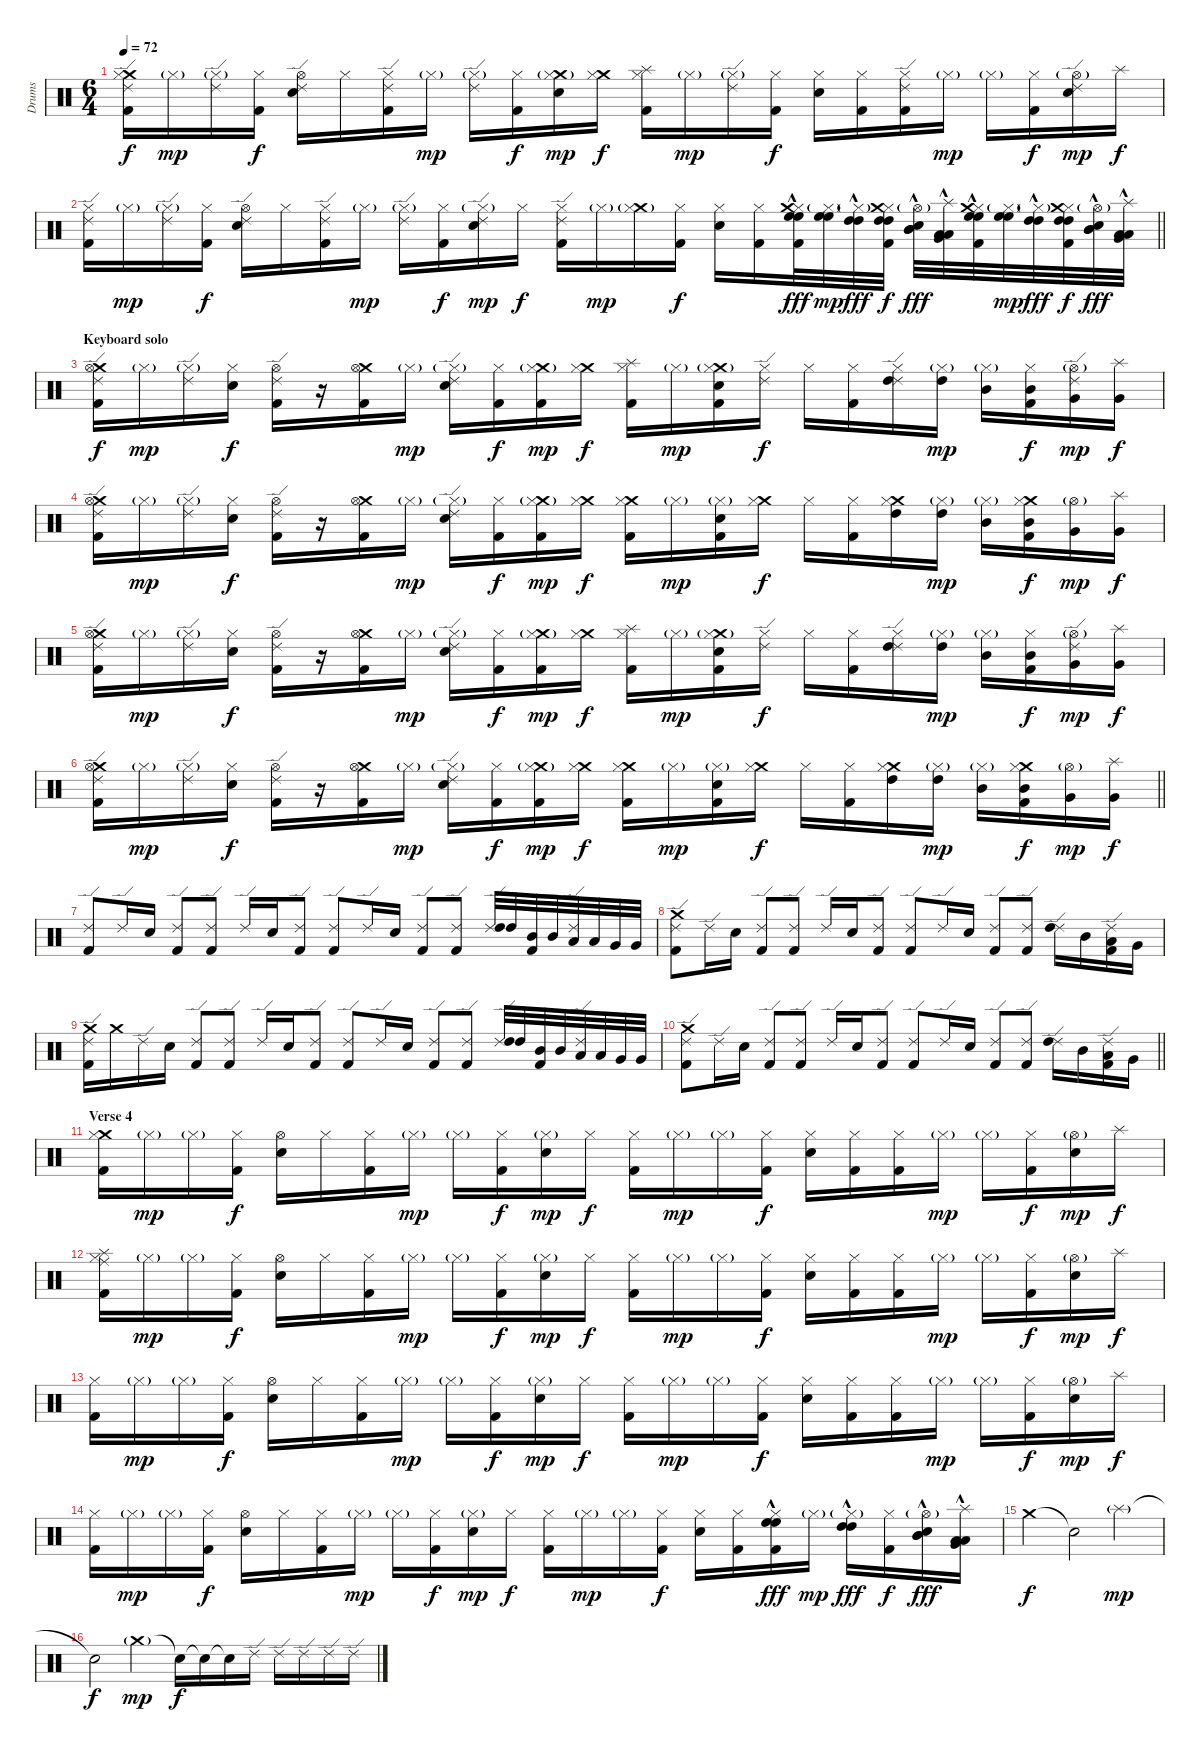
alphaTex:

\track ("Drums" "Drums") {instrument percussion}
\staff {score}
\articulation defaults
\ts (6 4)
\tempo 72
\clef neutral
\ks c
("Crash medium (hit)" "Hi-Hat (closed)" "Ride (edge) 2" "Kick (hit) 2").16{dy f} "Hi-Hat (closed)"{g}.16{dy mp} ("Hi-Hat (closed)"{g} "Ride (edge) 2").16 ("Hi-Hat (closed)" "Kick (hit) 2").16{dy f} ("Ride (edge) 2" "Hi-Hat (open)" "Electric Snare (hit)").16 "Hi-Hat (closed)".16 ("Ride (edge) 2" "Hi-Hat (closed)" "Kick (hit) 2").16 "Hi-Hat (closed)"{g}.16{dy mp} ("Ride (edge) 2" "Hi-Hat (closed)"{g}).16 ("Hi-Hat (closed)" "Kick (hit) 2").16{dy f} ("Crash medium (hit)" "Hi-Hat (closed)"{g} "Electric Snare (hit)").16{dy mp} ("Crash medium (hit)" "Hi-Hat (closed)").16{dy f} ("Splash (hit)" "Hi-Hat (closed)" "Kick (hit) 2").16 "Hi-Hat (closed)"{g}.16{dy mp} ("Ride (edge) 2" "Hi-Hat (closed)"{g}).16 ("Hi-Hat (closed)" "Kick (hit) 2").16{dy f} ("Hi-Hat (closed)" "Electric Snare (hit)").16 ("Hi-Hat (closed)" "Kick (hit) 2").16 ("Ride (edge) 2" "Hi-Hat (closed)" "Kick (hit) 2").16 "Hi-Hat (closed)"{g}.16{dy mp} "Hi-Hat (closed)"{g}.16 ("Hi-Hat (closed)" "Kick (hit) 2").16{dy f} ("Ride (edge) 2" "Hi-Hat (open)"{g} "Electric Snare (hit)").16{dy mp} "Splash (hit)".16{dy f} |
\barLineRight lightlight
("Ride (edge) 2" "Hi-Hat (closed)" "Kick (hit) 2").16 "Hi-Hat (closed)"{g}.16{dy mp} ("Ride (edge) 2" "Hi-Hat (closed)"{g}).16 ("Hi-Hat (closed)" "Kick (hit) 2").16{dy f} ("Ride (edge) 2" "Hi-Hat (open)" "Electric Snare (hit)").16 "Hi-Hat (closed)".16 ("Ride (edge) 2" "Hi-Hat (closed)" "Kick (hit) 2").16 "Hi-Hat (closed)"{g}.16{dy mp} ("Ride (edge) 2" "Hi-Hat (closed)"{g}).16{volume 16} ("Hi-Hat (closed)" "Kick (hit) 2").16{dy f} ("Ride (edge) 2" "Hi-Hat (closed)"{g} "Electric Snare (hit)").16{dy mp} "Hi-Hat (closed)".16{dy f} ("Ride (edge) 2" "Hi-Hat (closed)" "Kick (hit) 2").16 "Hi-Hat (closed)"{g}.16{dy mp} ("Crash medium (hit)" "Hi-Hat (closed)"{g}).16 ("Hi-Hat (closed)" "Kick (hit) 2").16{dy f} ("Hi-Hat (closed)" "Electric Snare (hit)").16 ("Hi-Hat (closed)" "Kick (hit) 2").16 ("High Floor Tom (hit)"{hac} "Hi-Hat (closed)" "High Floor Tom (hit)"{hac} "Kick (hit) 2" "Crash medium (hit)").32{dy fff} ("High Floor Tom (hit)" "Hi-Hat (closed)"{g} "High Floor Tom (hit)").32{dy mp} ("High Tom (hit)"{hac} "Hi-Hat (closed)"{g} "High Tom (hit)"{hac}).32{dy fff} ("High Tom (hit)" "Hi-Hat (closed)" "High Tom (hit)" "Kick (hit) 2" "Crash medium (hit)").32{dy f} ("Mid Tom (hit)"{hac} "Hi-Hat (open)"{g} "Electric Snare (hit)" "Mid Tom (hit)"{hac}).32{dy fff} ("Low Floor Tom (hit)"{hac} "Splash (hit)" "Very Low Tom (hit)"{hac} "Low Floor Tom (hit)"{hac}).32 ("High Floor Tom (hit)"{hac} "Hi-Hat (closed)" "High Floor Tom (hit)"{hac} "Kick (hit) 2" "Crash medium (hit)").32 ("High Floor Tom (hit)" "Hi-Hat (closed)"{g} "High Floor Tom (hit)").32{dy mp} ("High Tom (hit)"{hac} "Hi-Hat (closed)"{g} "High Tom (hit)"{hac}).32{dy fff} ("High Tom (hit)" "Hi-Hat (closed)" "High Tom (hit)" "Kick (hit) 2" "Crash medium (hit)").32{dy f} ("Mid Tom (hit)"{hac} "Hi-Hat (open)"{g} "Electric Snare (hit)" "Mid Tom (hit)"{hac}).32{dy fff} ("Low Floor Tom (hit)"{hac} "Splash (hit)" "Very Low Tom (hit)"{hac} "Low Floor Tom (hit)"{hac}).32 |
\section ("" "Keyboard solo")
("Crash medium (hit)" "Hi-Hat (open)" "Ride (edge) 2" "Kick (hit) 2").16{dy f volume 13} "Hi-Hat (closed)"{g}.16{dy mp} ("Hi-Hat (closed)"{g} "Ride (edge) 2").16 ("Hi-Hat (closed)" "Electric Snare (hit)").16{dy f} ("Ride (edge) 2" "Hi-Hat (open)" "Kick (hit) 2").16 r.16 ("Crash medium (hit)" "Hi-Hat (open)" "Kick (hit) 2").16 "Hi-Hat (closed)"{g}.16{dy mp} ("Ride (edge) 2" "Hi-Hat (closed)"{g} "Electric Snare (hit)").16 ("Hi-Hat (closed)" "Kick (hit) 2").16{dy f} ("Crash medium (hit)" "Hi-Hat (closed)"{g} "Kick (hit) 2").16{dy mp} ("Crash medium (hit)" "Hi-Hat (closed)").16{dy f} ("Splash (hit)" "Hi-Hat (closed)" "Kick (hit) 2").16 "Hi-Hat (closed)"{g}.16{dy mp} ("Crash medium (hit)" "Hi-Hat (closed)"{g} "Electric Snare (hit)" "Kick (hit) 2").16 ("Ride (edge) 2" "Hi-Hat (closed)").16{dy f} "Hi-Hat (closed)".16 ("Hi-Hat (closed)" "Kick (hit) 2").16 ("Ride (edge) 2" "Hi-Hat (closed)" "High Tom (hit)").16 ("Hi-Hat (closed)"{g} "High Tom (hit)").16{dy mp} ("Hi-Hat (closed)"{g} "Mid Tom (hit)").16 ("Hi-Hat (closed)" "Mid Tom (hit)" "Kick (hit) 2").16{dy f} ("Ride (edge) 2" "Hi-Hat (open)"{g} "Very Low Tom (hit)").16{dy mp} ("Splash (hit)" "Very Low Tom (hit)").16{dy f} |
("Crash medium (hit)" "Hi-Hat (open)" "Ride (edge) 2" "Kick (hit) 2").16 "Hi-Hat (closed)"{g}.16{dy mp} ("Hi-Hat (closed)"{g} "Ride (edge) 2").16 ("Hi-Hat (closed)" "Electric Snare (hit)").16{dy f} ("Ride (edge) 2" "Hi-Hat (open)" "Kick (hit) 2").16 r.16 ("Crash medium (hit)" "Hi-Hat (open)" "Kick (hit) 2").16 "Hi-Hat (closed)"{g}.16{dy mp} ("Ride (edge) 2" "Hi-Hat (closed)"{g} "Electric Snare (hit)").16 ("Hi-Hat (closed)" "Kick (hit) 2").16{dy f} ("Crash medium (hit)" "Hi-Hat (closed)"{g} "Kick (hit) 2").16{dy mp} ("Crash medium (hit)" "Hi-Hat (closed)").16{dy f} ("Crash medium (hit)" "Hi-Hat (closed)" "Kick (hit) 2").16 "Hi-Hat (closed)"{g}.16{dy mp} ("Hi-Hat (closed)"{g} "Electric Snare (hit)" "Kick (hit) 2").16 ("Crash medium (hit)" "Hi-Hat (closed)").16{dy f} "Hi-Hat (closed)".16 ("Hi-Hat (closed)" "Kick (hit) 2").16 ("Crash medium (hit)" "Hi-Hat (closed)" "High Tom (hit)").16 ("Hi-Hat (closed)"{g} "High Tom (hit)").16{dy mp} ("Hi-Hat (closed)"{g} "Mid Tom (hit)").16 ("Crash medium (hit)" "Hi-Hat (closed)" "Mid Tom (hit)" "Kick (hit) 2").16{dy f} ("Hi-Hat (open)"{g} "Very Low Tom (hit)").16{dy mp} ("Splash (hit)" "Very Low Tom (hit)").16{dy f} |
("Crash medium (hit)" "Hi-Hat (open)" "Ride (edge) 2" "Kick (hit) 2").16 "Hi-Hat (closed)"{g}.16{dy mp} ("Hi-Hat (closed)"{g} "Ride (edge) 2").16 ("Hi-Hat (closed)" "Electric Snare (hit)").16{dy f} ("Ride (edge) 2" "Hi-Hat (open)" "Kick (hit) 2").16 r.16 ("Crash medium (hit)" "Hi-Hat (open)" "Kick (hit) 2").16 "Hi-Hat (closed)"{g}.16{dy mp} ("Ride (edge) 2" "Hi-Hat (closed)"{g} "Electric Snare (hit)").16 ("Hi-Hat (closed)" "Kick (hit) 2").16{dy f} ("Crash medium (hit)" "Hi-Hat (closed)"{g} "Kick (hit) 2").16{dy mp} ("Crash medium (hit)" "Hi-Hat (closed)").16{dy f} ("Splash (hit)" "Hi-Hat (closed)" "Kick (hit) 2").16 "Hi-Hat (closed)"{g}.16{dy mp} ("Crash medium (hit)" "Hi-Hat (closed)"{g} "Electric Snare (hit)" "Kick (hit) 2").16 ("Ride (edge) 2" "Hi-Hat (closed)").16{dy f} "Hi-Hat (closed)".16 ("Hi-Hat (closed)" "Kick (hit) 2").16 ("Ride (edge) 2" "Hi-Hat (closed)" "High Tom (hit)").16 ("Hi-Hat (closed)"{g} "High Tom (hit)").16{dy mp} ("Hi-Hat (closed)"{g} "Mid Tom (hit)").16 ("Hi-Hat (closed)" "Mid Tom (hit)" "Kick (hit) 2").16{dy f} ("Ride (edge) 2" "Hi-Hat (open)"{g} "Very Low Tom (hit)").16{dy mp} ("Splash (hit)" "Very Low Tom (hit)").16{dy f} |
\barLineRight lightlight
("Crash medium (hit)" "Hi-Hat (open)" "Ride (edge) 2" "Kick (hit) 2").16 "Hi-Hat (closed)"{g}.16{dy mp} ("Hi-Hat (closed)"{g} "Ride (edge) 2").16 ("Hi-Hat (closed)" "Electric Snare (hit)").16{dy f} ("Ride (edge) 2" "Hi-Hat (open)" "Kick (hit) 2").16 r.16 ("Crash medium (hit)" "Hi-Hat (open)" "Kick (hit) 2").16 "Hi-Hat (closed)"{g}.16{dy mp} ("Ride (edge) 2" "Hi-Hat (closed)"{g} "Electric Snare (hit)").16 ("Hi-Hat (closed)" "Kick (hit) 2").16{dy f} ("Crash medium (hit)" "Hi-Hat (closed)"{g} "Kick (hit) 2").16{dy mp} ("Crash medium (hit)" "Hi-Hat (closed)").16{dy f} ("Crash medium (hit)" "Hi-Hat (closed)" "Kick (hit) 2").16 "Hi-Hat (closed)"{g}.16{dy mp} ("Hi-Hat (closed)"{g} "Electric Snare (hit)" "Kick (hit) 2").16 ("Crash medium (hit)" "Hi-Hat (closed)").16{dy f} "Hi-Hat (closed)".16 ("Hi-Hat (closed)" "Kick (hit) 2").16 ("Crash medium (hit)" "Hi-Hat (closed)" "High Tom (hit)").16 ("Hi-Hat (closed)"{g} "High Tom (hit)").16{dy mp} ("Hi-Hat (closed)"{g} "Mid Tom (hit)").16 ("Crash medium (hit)" "Hi-Hat (closed)" "Mid Tom (hit)" "Kick (hit) 2").16{dy f} ("Hi-Hat (open)"{g} "Very Low Tom (hit)").16{dy mp} ("Splash (hit)" "Very Low Tom (hit)").16{dy f} |
\section ("" "")
("Ride (edge) 2" "Kick (hit) 2").8 "Ride (edge) 2".16 "Electric Snare (hit)".16 ("Ride (edge) 2" "Kick (hit) 2").8 ("Ride (edge) 2" "Kick (hit) 2").8 "Ride (edge) 2".16 "Electric Snare (hit)".16 ("Ride (edge) 2" "Kick (hit) 2").8 ("Ride (edge) 2" "Kick (hit) 2").8 "Ride (edge) 2".16 "Electric Snare (hit)".16 ("Ride (edge) 2" "Kick (hit) 2").8 ("Ride (edge) 2" "Kick (hit) 2").8 ("Ride (edge) 2" "High Tom (hit)").32 "High Tom (hit)".32 ("Mid Tom (hit)" "Kick (hit) 2").32 "Mid Tom (hit)".32 ("Ride (edge) 2" "Low Tom (hit)").32 "Low Tom (hit)".32 "Very Low Tom (hit)".32 "Very Low Tom (hit)".32 |
("Crash medium (hit)" "Ride (edge) 2" "Kick (hit) 2").8 "Ride (edge) 2".16 "Electric Snare (hit)".16 ("Ride (edge) 2" "Kick (hit) 2").8 ("Ride (edge) 2" "Kick (hit) 2").8 "Ride (edge) 2".16 "Electric Snare (hit)".16 ("Ride (edge) 2" "Kick (hit) 2").8 ("Ride (edge) 2" "Kick (hit) 2").8 "Ride (edge) 2".16 "Electric Snare (hit)".16 ("Ride (edge) 2" "Kick (hit) 2").8 ("Ride (edge) 2" "Kick (hit) 2").8 ("Ride (edge) 2" "High Tom (hit)").16 "Mid Tom (hit)".16 ("Ride (edge) 2" "Low Tom (hit)" "Kick (hit) 2").16 "Very Low Tom (hit)".16 |
("Crash medium (hit)" "Ride (edge) 2" "Kick (hit) 2").16 "Crash medium (hit)".16 "Ride (edge) 2".16 "Electric Snare (hit)".16 ("Ride (edge) 2" "Kick (hit) 2").8 ("Ride (edge) 2" "Kick (hit) 2").8 "Ride (edge) 2".16 "Electric Snare (hit)".16 ("Ride (edge) 2" "Kick (hit) 2").8 ("Ride (edge) 2" "Kick (hit) 2").8 "Ride (edge) 2".16 "Electric Snare (hit)".16 ("Ride (edge) 2" "Kick (hit) 2").8 ("Ride (edge) 2" "Kick (hit) 2").8 ("Ride (edge) 2" "High Tom (hit)").32 "High Tom (hit)".32 ("Mid Tom (hit)" "Kick (hit) 2").32 "Mid Tom (hit)".32 ("Ride (edge) 2" "Low Tom (hit)").32 "Low Tom (hit)".32 "Very Low Tom (hit)".32 "Very Low Tom (hit)".32 |
\barLineRight lightlight
("Crash medium (hit)" "Ride (edge) 2" "Kick (hit) 2").8 "Ride (edge) 2".16 "Electric Snare (hit)".16 ("Ride (edge) 2" "Kick (hit) 2").8 ("Ride (edge) 2" "Kick (hit) 2").8 "Ride (edge) 2".16 "Electric Snare (hit)".16 ("Ride (edge) 2" "Kick (hit) 2").8 ("Ride (edge) 2" "Kick (hit) 2").8 "Ride (edge) 2".16 "Electric Snare (hit)".16 ("Ride (edge) 2" "Kick (hit) 2").8 ("Ride (edge) 2" "Kick (hit) 2").8 ("Ride (edge) 2" "High Tom (hit)").16 "Mid Tom (hit)".16 ("Ride (edge) 2" "Low Tom (hit)" "Kick (hit) 2").16 "Very Low Tom (hit)".16 |
\section ("" "Verse 4")
("Crash medium (hit)" "Hi-Hat (closed)" "Kick (hit) 2").16 "Hi-Hat (closed)"{g}.16{dy mp} "Hi-Hat (closed)"{g}.16 ("Hi-Hat (closed)" "Kick (hit) 2").16{dy f} ("Hi-Hat (open)" "Electric Snare (hit)").16 "Hi-Hat (closed)".16 ("Hi-Hat (closed)" "Kick (hit) 2").16 "Hi-Hat (closed)"{g}.16{dy mp} "Hi-Hat (closed)"{g}.16 ("Hi-Hat (closed)" "Kick (hit) 2").16{dy f} ("Hi-Hat (closed)"{g} "Electric Snare (hit)").16{dy mp} "Hi-Hat (closed)".16{dy f} ("Hi-Hat (closed)" "Kick (hit) 2").16 "Hi-Hat (closed)"{g}.16{dy mp} "Hi-Hat (closed)"{g}.16 ("Hi-Hat (closed)" "Kick (hit) 2").16{dy f} ("Hi-Hat (closed)" "Electric Snare (hit)").16 ("Hi-Hat (closed)" "Kick (hit) 2").16 ("Hi-Hat (closed)" "Kick (hit) 2").16 "Hi-Hat (closed)"{g}.16{dy mp} "Hi-Hat (closed)"{g}.16 ("Hi-Hat (closed)" "Kick (hit) 2").16{dy f} ("Hi-Hat (open)"{g} "Electric Snare (hit)").16{dy mp} "Splash (hit)".16{dy f} |
("Ride (middle)" "Hi-Hat (closed)" "Splash (hit)" "Kick (hit) 2").16 "Hi-Hat (closed)"{g}.16{dy mp} "Hi-Hat (closed)"{g}.16 ("Hi-Hat (closed)" "Kick (hit) 2").16{dy f} ("Hi-Hat (open)" "Electric Snare (hit)").16 "Hi-Hat (closed)".16 ("Hi-Hat (closed)" "Kick (hit) 2").16 "Hi-Hat (closed)"{g}.16{dy mp} "Hi-Hat (closed)"{g}.16 ("Hi-Hat (closed)" "Kick (hit) 2").16{dy f} ("Hi-Hat (closed)"{g} "Electric Snare (hit)").16{dy mp} "Hi-Hat (closed)".16{dy f} ("Hi-Hat (closed)" "Kick (hit) 2").16 "Hi-Hat (closed)"{g}.16{dy mp} "Hi-Hat (closed)"{g}.16 ("Hi-Hat (closed)" "Kick (hit) 2").16{dy f} ("Hi-Hat (closed)" "Electric Snare (hit)").16 ("Hi-Hat (closed)" "Kick (hit) 2").16 ("Hi-Hat (closed)" "Kick (hit) 2").16 "Hi-Hat (closed)"{g}.16{dy mp} "Hi-Hat (closed)"{g}.16 ("Hi-Hat (closed)" "Kick (hit) 2").16{dy f} ("Hi-Hat (open)"{g} "Electric Snare (hit)").16{dy mp} "Splash (hit)".16{dy f} |
("Hi-Hat (closed)" "Kick (hit) 2").16 "Hi-Hat (closed)"{g}.16{dy mp} "Hi-Hat (closed)"{g}.16 ("Hi-Hat (closed)" "Kick (hit) 2").16{dy f} ("Hi-Hat (open)" "Electric Snare (hit)").16 "Hi-Hat (closed)".16 ("Hi-Hat (closed)" "Kick (hit) 2").16 "Hi-Hat (closed)"{g}.16{dy mp} "Hi-Hat (closed)"{g}.16 ("Hi-Hat (closed)" "Kick (hit) 2").16{dy f} ("Hi-Hat (closed)"{g} "Electric Snare (hit)").16{dy mp} "Hi-Hat (closed)".16{dy f} ("Hi-Hat (closed)" "Kick (hit) 2").16 "Hi-Hat (closed)"{g}.16{dy mp} "Hi-Hat (closed)"{g}.16 ("Hi-Hat (closed)" "Kick (hit) 2").16{dy f} ("Hi-Hat (closed)" "Electric Snare (hit)").16 ("Hi-Hat (closed)" "Kick (hit) 2").16 ("Hi-Hat (closed)" "Kick (hit) 2").16 "Hi-Hat (closed)"{g}.16{dy mp} "Hi-Hat (closed)"{g}.16 ("Hi-Hat (closed)" "Kick (hit) 2").16{dy f} ("Hi-Hat (open)"{g} "Electric Snare (hit)").16{dy mp} "Splash (hit)".16{dy f} |
("Hi-Hat (closed)" "Kick (hit) 2").16 "Hi-Hat (closed)"{g}.16{dy mp} "Hi-Hat (closed)"{g}.16 ("Hi-Hat (closed)" "Kick (hit) 2").16{dy f} ("Hi-Hat (open)" "Electric Snare (hit)").16 "Hi-Hat (closed)".16 ("Hi-Hat (closed)" "Kick (hit) 2").16 "Hi-Hat (closed)"{g}.16{dy mp} "Hi-Hat (closed)"{g}.16 ("Hi-Hat (closed)" "Kick (hit) 2").16{dy f} ("Hi-Hat (closed)"{g} "Electric Snare (hit)").16{dy mp} "Hi-Hat (closed)".16{dy f} ("Hi-Hat (closed)" "Kick (hit) 2").16 "Hi-Hat (closed)"{g}.16{dy mp} "Hi-Hat (closed)"{g}.16 ("Hi-Hat (closed)" "Kick (hit) 2").16{dy f} ("Hi-Hat (closed)" "Electric Snare (hit)").16 ("Hi-Hat (closed)" "Kick (hit) 2").16 ("High Floor Tom (hit)"{hac} "Hi-Hat (closed)" "High Floor Tom (hit)"{hac} "Kick (hit) 2").16{dy fff} "Hi-Hat (closed)"{g}.16{dy mp} ("High Tom (hit)"{hac} "Hi-Hat (closed)"{g} "High Tom (hit)"{hac}).16{dy fff} ("Hi-Hat (closed)" "Kick (hit) 2").16{dy f} ("Mid Tom (hit)"{hac} "Hi-Hat (open)"{g} "Electric Snare (hit)" "Mid Tom (hit)"{hac}).16{dy fff} ("Low Floor Tom (hit)"{hac} "Splash (hit)" "Very Low Tom (hit)"{hac} "Low Floor Tom (hit)"{hac}).16 |
"Crash medium (hit)".2{dy f} "Snare (hit)"{t}.2 "Splash (hit)"{g}.2{dy mp} |
"Snare (hit)"{t}.2{dy f} "Crash medium (hit)"{g}.2{dy mp} "Snare (hit)"{t}.16{dy f} "Snare (hit)"{t}.16 "Snare (hit)"{t}.16 "Ride (edge) 2".16 "Ride (edge) 2".16 "Ride (edge) 2".16 "Ride (edge) 2".16 "Ride (edge) 2".16
